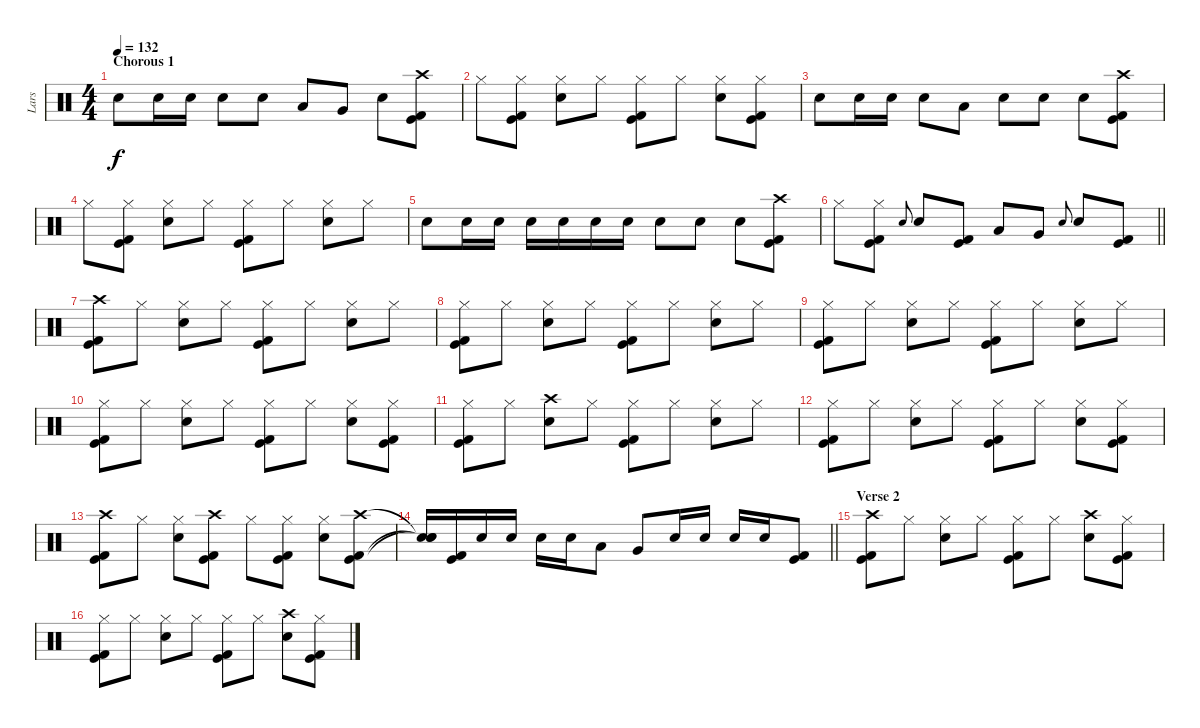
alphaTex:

\track ("Lars" "Lars") {instrument percussion}
\staff {score}
\articulation defaults
\ts (4 4)
\section ("" "Chorous 1")
\tempo 132
\clef neutral
\ks c "Electric Snare (hit)".8{dy f} "Electric Snare (hit)".16 "Electric Snare (hit)".16 "Electric Snare (hit)".8 "Electric Snare (hit)".8 "Low Tom (hit)".8 "Very Low Tom (hit)".8 "Electric Snare (hit)".8
("Crash high (hit)" "Kick (hit)" "Kick (hit) 2").8 |
"Hi-Hat (closed)".8 ("Hi-Hat (closed)" "Kick (hit)" "Kick (hit) 2").8 ("Hi-Hat (closed)" "Electric Snare (hit)").8 "Hi-Hat (closed)".8 ("Hi-Hat (closed)" "Kick (hit)" "Kick (hit) 2").8 "Hi-Hat (closed)".8 ("Hi-Hat (closed)" "Electric Snare (hit)").8 ("Hi-Hat (closed)" "Kick (hit)" "Kick (hit) 2").8 |
"Electric Snare (hit)".8 "Electric Snare (hit)".16 "Electric Snare (hit)".16 "Electric Snare (hit)".8 "Low Tom (hit)".8 "Electric Snare (hit)".8 "Electric Snare (hit)".8 "Electric Snare (hit)".8 ("Crash high (hit)" "Kick (hit)" "Kick (hit) 2").8 |
"Hi-Hat (closed)".8 ("Hi-Hat (closed)" "Kick (hit)" "Kick (hit) 2").8 ("Hi-Hat (closed)" "Electric Snare (hit)").8 "Hi-Hat (closed)".8 ("Hi-Hat (closed)" "Kick (hit)" "Kick (hit) 2").8 "Hi-Hat (closed)".8 ("Hi-Hat (closed)" "Electric Snare (hit)").8 "Hi-Hat (closed)".8 |
"Electric Snare (hit)".8 "Electric Snare (hit)".16 "Electric Snare (hit)".16 "Electric Snare (hit)".16 "Electric Snare (hit)".16 "Electric Snare (hit)".16 "Electric Snare (hit)".16 "Electric Snare (hit)".8 "Electric Snare (hit)".8 "Electric Snare (hit)".8 ("Crash high (hit)" "Kick (hit)" "Kick (hit) 2").8 |
\barLineRight lightlight "Hi-Hat (closed)".8
("Hi-Hat (closed)" "Kick (hit)" "Kick (hit) 2").8 "Electric Snare (hit)".8{gr onbeat} "Electric Snare (hit)".8 ("Kick (hit)" "Kick (hit) 2").8 "Low Tom (hit)".8 "Very Low Tom (hit)".8 "Electric Snare (hit)".8{gr onbeat} "Electric Snare (hit)".8 ("Kick (hit)" "Kick (hit) 2").8 |
\section ("" "")
("Crash high (hit)" "Kick (hit)" "Kick (hit) 2").8 "Hi-Hat (closed)".8 ("Hi-Hat (closed)" "Electric Snare (hit)").8 "Hi-Hat (closed)".8 ("Hi-Hat (closed)" "Kick (hit)" "Kick (hit) 2").8 "Hi-Hat (closed)".8 ("Hi-Hat (closed)" "Electric Snare (hit)").8 "Hi-Hat (closed)".8 |
("Hi-Hat (closed)" "Kick (hit)" "Kick (hit) 2").8 "Hi-Hat (closed)".8 ("Hi-Hat (closed)" "Electric Snare (hit)").8 "Hi-Hat (closed)".8 ("Hi-Hat (closed)" "Kick (hit)" "Kick (hit) 2").8 "Hi-Hat (closed)".8 ("Hi-Hat (closed)" "Electric Snare (hit)").8 "Hi-Hat (closed)".8 |
("Hi-Hat (closed)" "Kick (hit)" "Kick (hit) 2").8 "Hi-Hat (closed)".8 ("Hi-Hat (closed)" "Electric Snare (hit)").8 "Hi-Hat (closed)".8 ("Hi-Hat (closed)" "Kick (hit)" "Kick (hit) 2").8 "Hi-Hat (closed)".8 ("Hi-Hat (closed)" "Electric Snare (hit)").8 "Hi-Hat (closed)".8 |
("Hi-Hat (closed)" "Kick (hit)" "Kick (hit) 2").8 "Hi-Hat (closed)".8 ("Hi-Hat (closed)" "Electric Snare (hit)").8 "Hi-Hat (closed)".8 ("Hi-Hat (closed)" "Kick (hit)" "Kick (hit) 2").8 "Hi-Hat (closed)".8 ("Hi-Hat (closed)" "Electric Snare (hit)").8 ("Hi-Hat (closed)" "Kick (hit)" "Kick (hit) 2").8 |
("Hi-Hat (closed)" "Kick (hit)" "Kick (hit) 2").8 "Hi-Hat (closed)".8 ("Crash high (hit)" "Electric Snare (hit)").8 "Hi-Hat (closed)".8 ("Hi-Hat (closed)" "Kick (hit)" "Kick (hit) 2").8 "Hi-Hat (closed)".8 ("Hi-Hat (closed)" "Electric Snare (hit)").8 "Hi-Hat (closed)".8 |
("Hi-Hat (closed)" "Kick (hit)" "Kick (hit) 2").8 "Hi-Hat (closed)".8 ("Hi-Hat (closed)" "Electric Snare (hit)").8 "Hi-Hat (closed)".8 ("Hi-Hat (closed)" "Kick (hit)" "Kick (hit) 2").8 "Hi-Hat (closed)".8 ("Hi-Hat (closed)" "Electric Snare (hit)").8 ("Hi-Hat (closed)" "Kick (hit)" "Kick (hit) 2").8 |
("Crash high (hit)" "Kick (hit)" "Kick (hit) 2").8 "Hi-Hat (closed)".8 ("Hi-Hat (closed)" "Electric Snare (hit)").8 ("Crash high (hit)" "Kick (hit)" "Kick (hit) 2").8 "Hi-Hat (closed)".8 ("Hi-Hat (closed)" "Kick (hit)" "Kick (hit) 2").8 ("Hi-Hat (closed)" "Electric Snare (hit)").8 ("Crash high (hit)" "Kick (hit)" "Kick (hit) 2").8 |
\barLineRight lightlight
("Snare (hit)"{t} "Snare (hit)"{t} "Snare (hit)"{t}).16 ("Kick (hit)" "Kick (hit) 2").16 "Electric Snare (hit)".16 "Electric Snare (hit)".16 "Electric Snare (hit)".16 "Electric Snare (hit)".16 "Low Tom (hit)".8 "Very Low Tom (hit)".8 "Electric Snare (hit)".16 "Electric Snare (hit)".16 "Electric Snare (hit)".16 "Electric Snare (hit)".16 ("Kick (hit)" "Kick (hit) 2").8 |
\section ("" "Verse 2")
("Crash high (hit)" "Kick (hit)" "Kick (hit) 2").8 "Hi-Hat (closed)".8 ("Hi-Hat (closed)" "Electric Snare (hit)").8 "Hi-Hat (closed)".8 ("Hi-Hat (closed)" "Kick (hit)" "Kick (hit) 2").8 "Hi-Hat (closed)".8 ("Crash high (hit)" "Electric Snare (hit)").8 ("Hi-Hat (closed)" "Kick (hit)" "Kick (hit) 2").8 |
("Hi-Hat (closed)" "Kick (hit)" "Kick (hit) 2").8 "Hi-Hat (closed)".8 ("Hi-Hat (closed)" "Electric Snare (hit)").8 "Hi-Hat (closed)".8 ("Hi-Hat (closed)" "Kick (hit)" "Kick (hit) 2").8 "Hi-Hat (closed)".8 ("Crash high (hit)" "Electric Snare (hit)").8 ("Hi-Hat (closed)" "Kick (hit)" "Kick (hit) 2").8
